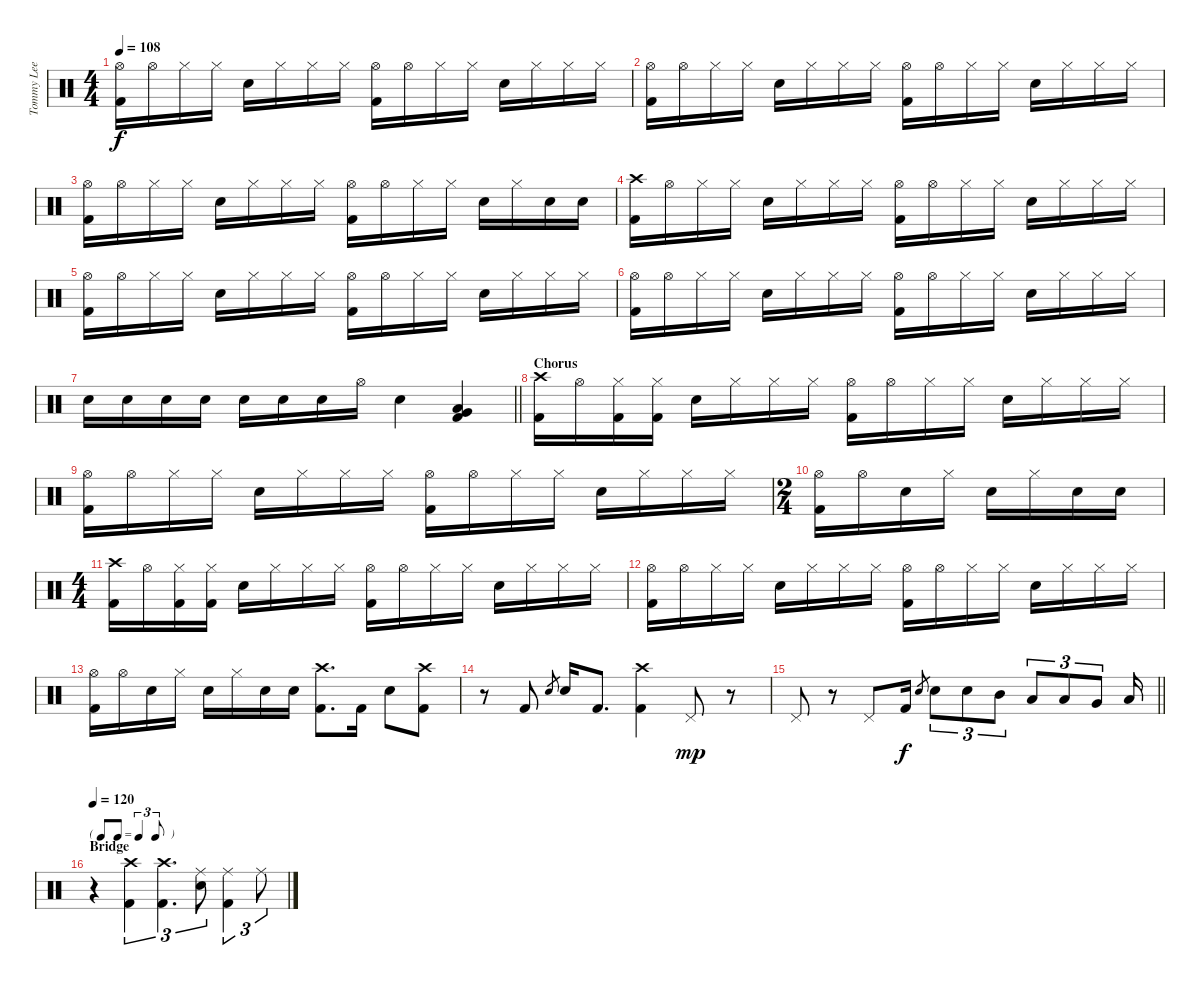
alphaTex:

\track ("Tommy Lee - Drums" "Tommy Lee ") {instrument percussion}
\staff {score}
\articulation defaults
\ts (4 4)
\tempo 108
\clef neutral
\ks c
("Hi-Hat (open)" "Kick (hit) 2").16{dy f} "Hi-Hat (open)".16 "Hi-Hat (closed)".16 "Hi-Hat (closed)".16 "Snare (hit) 2".16 "Hi-Hat (closed)".16 "Hi-Hat (closed)".16 "Hi-Hat (closed)".16 ("Hi-Hat (open)" "Kick (hit) 2").16 "Hi-Hat (open)".16 "Hi-Hat (closed)".16 "Hi-Hat (closed)".16 "Snare (hit) 2".16 "Hi-Hat (closed)".16 "Hi-Hat (closed)".16 "Hi-Hat (closed)".16 |
("Hi-Hat (open)" "Kick (hit) 2").16 "Hi-Hat (open)".16 "Hi-Hat (closed)".16 "Hi-Hat (closed)".16 "Snare (hit) 2".16 "Hi-Hat (closed)".16 "Hi-Hat (closed)".16 "Hi-Hat (closed)".16 ("Hi-Hat (open)" "Kick (hit) 2").16 "Hi-Hat (open)".16 "Hi-Hat (closed)".16 "Hi-Hat (closed)".16 "Snare (hit) 2".16 "Hi-Hat (closed)".16 "Hi-Hat (closed)".16 "Hi-Hat (closed)".16 |
("Hi-Hat (open)" "Kick (hit) 2").16 "Hi-Hat (open)".16 "Hi-Hat (closed)".16 "Hi-Hat (closed)".16 "Snare (hit) 2".16 "Hi-Hat (closed)".16 "Hi-Hat (closed)".16 "Hi-Hat (closed)".16 ("Hi-Hat (open)" "Kick (hit) 2").16 "Hi-Hat (open)".16 "Hi-Hat (closed)".16 "Hi-Hat (closed)".16 "Snare (hit) 2".16 "Hi-Hat (closed)".16 "Snare (hit) 2".16 "Snare (hit) 2".16 |
("Crash high (hit)" "Kick (hit) 2").16 "Hi-Hat (open)".16 "Hi-Hat (closed)".16 "Hi-Hat (closed)".16 "Snare (hit) 2".16 "Hi-Hat (closed)".16 "Hi-Hat (closed)".16 "Hi-Hat (closed)".16 ("Hi-Hat (open)" "Kick (hit) 2").16 "Hi-Hat (open)".16 "Hi-Hat (closed)".16 "Hi-Hat (closed)".16 "Snare (hit) 2".16 "Hi-Hat (closed)".16 "Hi-Hat (closed)".16 "Hi-Hat (closed)".16 |
("Hi-Hat (open)" "Kick (hit) 2").16 "Hi-Hat (open)".16 "Hi-Hat (closed)".16 "Hi-Hat (closed)".16 "Snare (hit) 2".16 "Hi-Hat (closed)".16 "Hi-Hat (closed)".16 "Hi-Hat (closed)".16 ("Hi-Hat (open)" "Kick (hit) 2").16 "Hi-Hat (open)".16 "Hi-Hat (closed)".16 "Hi-Hat (closed)".16 "Snare (hit) 2".16 "Hi-Hat (closed)".16 "Hi-Hat (closed)".16 "Hi-Hat (closed)".16 |
("Hi-Hat (open)" "Kick (hit) 2").16 "Hi-Hat (open)".16 "Hi-Hat (closed)".16 "Hi-Hat (closed)".16 "Snare (hit) 2".16 "Hi-Hat (closed)".16 "Hi-Hat (closed)".16 "Hi-Hat (closed)".16 ("Hi-Hat (open)" "Kick (hit) 2").16 "Hi-Hat (open)".16 "Hi-Hat (closed)".16 "Hi-Hat (closed)".16 "Snare (hit) 2".16 "Hi-Hat (closed)".16 "Hi-Hat (closed)".16 "Hi-Hat (closed)".16 |
\barLineRight lightlight "Snare (hit) 2".16 "Snare (hit) 2".16 "Snare (hit) 2".16 "Snare (hit) 2".16 "Snare (hit) 2".16 "Snare (hit) 2".16 "Snare (hit) 2".16 "Hi-Hat (open)".16 "Snare (hit) 2".4
("Very Low Tom (hit)" "Low Floor Tom (hit)" "Kick (hit) 2").4 |
\section ("" "Chorus")
("Crash high (hit)" "Kick (hit) 2").16 "Hi-Hat (open)".16 ("Hi-Hat (closed)" "Kick (hit) 2").16 ("Hi-Hat (closed)" "Kick (hit) 2").16 "Snare (hit) 2".16 "Hi-Hat (closed)".16 "Hi-Hat (closed)".16 "Hi-Hat (closed)".16 ("Hi-Hat (open)" "Kick (hit) 2").16 "Hi-Hat (open)".16 "Hi-Hat (closed)".16 "Hi-Hat (closed)".16 "Snare (hit) 2".16 "Hi-Hat (closed)".16 "Hi-Hat (closed)".16 "Hi-Hat (closed)".16 |
("Hi-Hat (open)" "Kick (hit) 2").16 "Hi-Hat (open)".16 "Hi-Hat (closed)".16 "Hi-Hat (closed)".16 "Snare (hit) 2".16 "Hi-Hat (closed)".16 "Hi-Hat (closed)".16 "Hi-Hat (closed)".16 ("Hi-Hat (open)" "Kick (hit) 2").16 "Hi-Hat (open)".16 "Hi-Hat (closed)".16 "Hi-Hat (closed)".16 "Snare (hit) 2".16 "Hi-Hat (closed)".16 "Hi-Hat (closed)".16 "Hi-Hat (closed)".16 |
\ts (2 4)
("Hi-Hat (open)" "Kick (hit) 2").16 "Hi-Hat (open)".16 "Snare (hit) 2".16 "Hi-Hat (closed)".16 "Snare (hit) 2".16 "Hi-Hat (closed)".16 "Snare (hit) 2".16 "Snare (hit) 2".16 |
\ts (4 4)
("Crash high (hit)" "Kick (hit) 2").16 "Hi-Hat (open)".16 ("Hi-Hat (closed)" "Kick (hit) 2").16 ("Hi-Hat (closed)" "Kick (hit) 2").16 "Snare (hit) 2".16 "Hi-Hat (closed)".16 "Hi-Hat (closed)".16 "Hi-Hat (closed)".16 ("Hi-Hat (open)" "Kick (hit) 2").16 "Hi-Hat (open)".16 "Hi-Hat (closed)".16 "Hi-Hat (closed)".16 "Snare (hit) 2".16 "Hi-Hat (closed)".16 "Hi-Hat (closed)".16 "Hi-Hat (closed)".16 |
("Hi-Hat (open)" "Kick (hit) 2").16 "Hi-Hat (open)".16 "Hi-Hat (closed)".16 "Hi-Hat (closed)".16 "Snare (hit) 2".16 "Hi-Hat (closed)".16 "Hi-Hat (closed)".16 "Hi-Hat (closed)".16 ("Hi-Hat (open)" "Kick (hit) 2").16 "Hi-Hat (open)".16 "Hi-Hat (closed)".16 "Hi-Hat (closed)".16 "Snare (hit) 2".16 "Hi-Hat (closed)".16 "Hi-Hat (closed)".16 "Hi-Hat (closed)".16 |
("Hi-Hat (open)" "Kick (hit) 2").16 "Hi-Hat (open)".16 "Snare (hit) 2".16 "Hi-Hat (closed)".16 "Snare (hit) 2".16 "Hi-Hat (closed)".16 "Snare (hit) 2".16 "Snare (hit) 2".16 ("Crash high (hit)" "Kick (hit) 2").8{d} "Kick (hit) 2".16 "Snare (hit) 2".8 ("Crash high (hit)" "Kick (hit) 2").8 |
r.8 "Kick (hit) 2".8 "Snare (hit) 2".8{gr} "Snare (hit) 2".16 "Kick (hit) 2".8{d} ("Crash high (hit)" "Kick (hit) 2").4 "Pedal Hi-Hat (hit)".8{dy mp} r.8 |
\barLineRight lightlight "Pedal Hi-Hat (hit)".8
r.8 "Pedal Hi-Hat (hit)".8 "Kick (hit) 2".16{dy f} "Snare (hit) 2".8{gr} "Snare (hit) 2".8{tu (3 2)} "Snare (hit) 2".8{tu (3 2)} "Mid Tom (hit)".8{tu (3 2)} "Low Tom (hit)".8{tu (3 2)} "Low Tom (hit)".8{tu (3 2)} "Very Low Tom (hit)".8{tu (3 2)} "Low Floor Tom (hit)".16 |
\tf triplet8th
\section ("" "Bridge")
\tempo 120
r.4 ("Crash high (hit)" "Kick (hit) 2").4{tu (3 2)} ("Crash high (hit)" "Kick (hit) 2").4{d tu (3 2)} ("Ride (middle)" "Snare (hit) 2").8{tu (3 2)} ("Ride (middle)" "Kick (hit) 2").4{tu (3 2)} "Ride (middle)".8{tu (3 2)}
